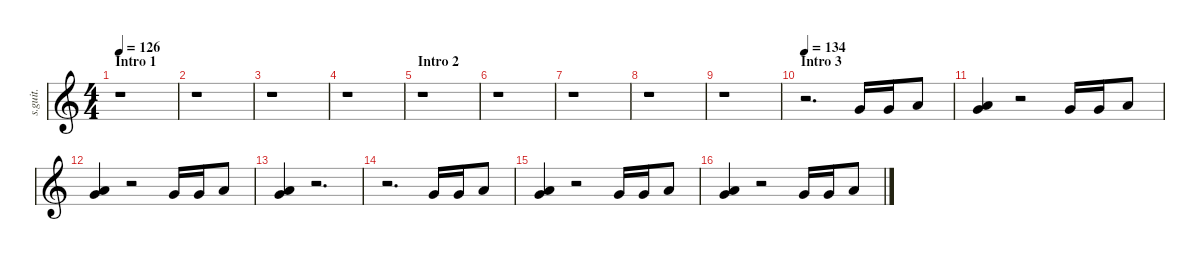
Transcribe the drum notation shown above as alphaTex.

\defaultSystemsLayout 4
\hideDynamics
\bracketExtendMode nobrackets
\track ("Chris Fehn" "s.guit.") {instrument percussion}
\staff {score}
\articulation defaults
\ts (4 4)
\beaming (8 2 2 2 2)
\section ("" "Intro 1")
\tempo 126
\clef g2
\ks c
r.1{dy f} |
r.1 |
r.1 |
r.1 |
\section ("" "Intro 2")
r.1 |
r.1 |
r.1 |
r.1 |
r.1 |
\section ("" "Intro 3")
\tempo 134
r.2{d} "Very Low Tom (hit)".16 "Very Low Tom (hit)".16 "Low Floor Tom (hit)".8 |
("Very Low Tom (hit)" "Low Floor Tom (hit)").4 r.2 "Very Low Tom (hit)".16 "Very Low Tom (hit)".16 "Low Floor Tom (hit)".8 |
("Very Low Tom (hit)" "Low Floor Tom (hit)").4 r.2 "Very Low Tom (hit)".16 "Very Low Tom (hit)".16 "Low Floor Tom (hit)".8 |
("Very Low Tom (hit)" "Low Floor Tom (hit)").4 r.2{d} |
r.2{d} "Very Low Tom (hit)".16 "Very Low Tom (hit)".16 "Low Floor Tom (hit)".8 |
("Very Low Tom (hit)" "Low Floor Tom (hit)").4 r.2 "Very Low Tom (hit)".16 "Very Low Tom (hit)".16 "Low Floor Tom (hit)".8 |
("Very Low Tom (hit)" "Low Floor Tom (hit)").4 r.2 "Very Low Tom (hit)".16 "Very Low Tom (hit)".16 "Low Floor Tom (hit)".8
